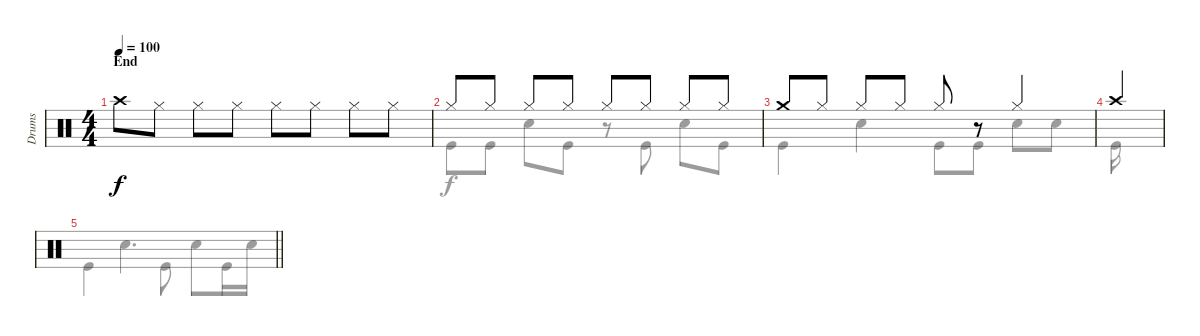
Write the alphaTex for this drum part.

\track ("Drums" "Drums") {instrument percussion}
\staff {score}
\articulation defaults
\voice
\ts (4 4)
\section ("" "End")
\tempo 100
\clef neutral
\ks c "Crash high (hit)".8{dy f} "Hi-Hat (closed)".8 "Hi-Hat (closed)".8 "Hi-Hat (closed)".8 "Hi-Hat (closed)".8 "Hi-Hat (closed)".8 "Hi-Hat (closed)".8 "Hi-Hat (closed)".8
|
"Hi-Hat (closed)".8 "Hi-Hat (closed)".8 "Hi-Hat (closed)".8 "Hi-Hat (closed)".8 "Hi-Hat (closed)".8 "Hi-Hat (closed)".8 "Hi-Hat (closed)".8 "Hi-Hat (closed)".8 |
"Crash medium (hit)".8 "Hi-Hat (closed)".8 "Hi-Hat (closed)".8 "Hi-Hat (closed)".8 "Hi-Hat (closed)".8 r.8 "Hi-Hat (closed)".4 |
"Crash high (hit)".4 |
\barLineRight lightlight
\voice
\clef neutral
\ottava regular
\simile none
\ks c "Kick (hit)".4{dy f} "Snare (hit) 2".4{d} "Kick (hit)".8 "Snare (hit) 2".8 "Kick (hit)".16 "Snare (hit) 2".16
|
"Kick (hit)".8 "Kick (hit)".8 "Snare (hit) 2".8 "Kick (hit)".8 r.8 "Kick (hit)".8 "Snare (hit) 2".8 "Kick (hit)".8 |
"Kick (hit)".4 "Snare (hit) 2".4 "Kick (hit)".8 "Kick (hit)".8 "Snare (hit) 2".8 "Snare (hit) 2".8 |
"Kick (hit)".16 |
\barLineRight lightlight
